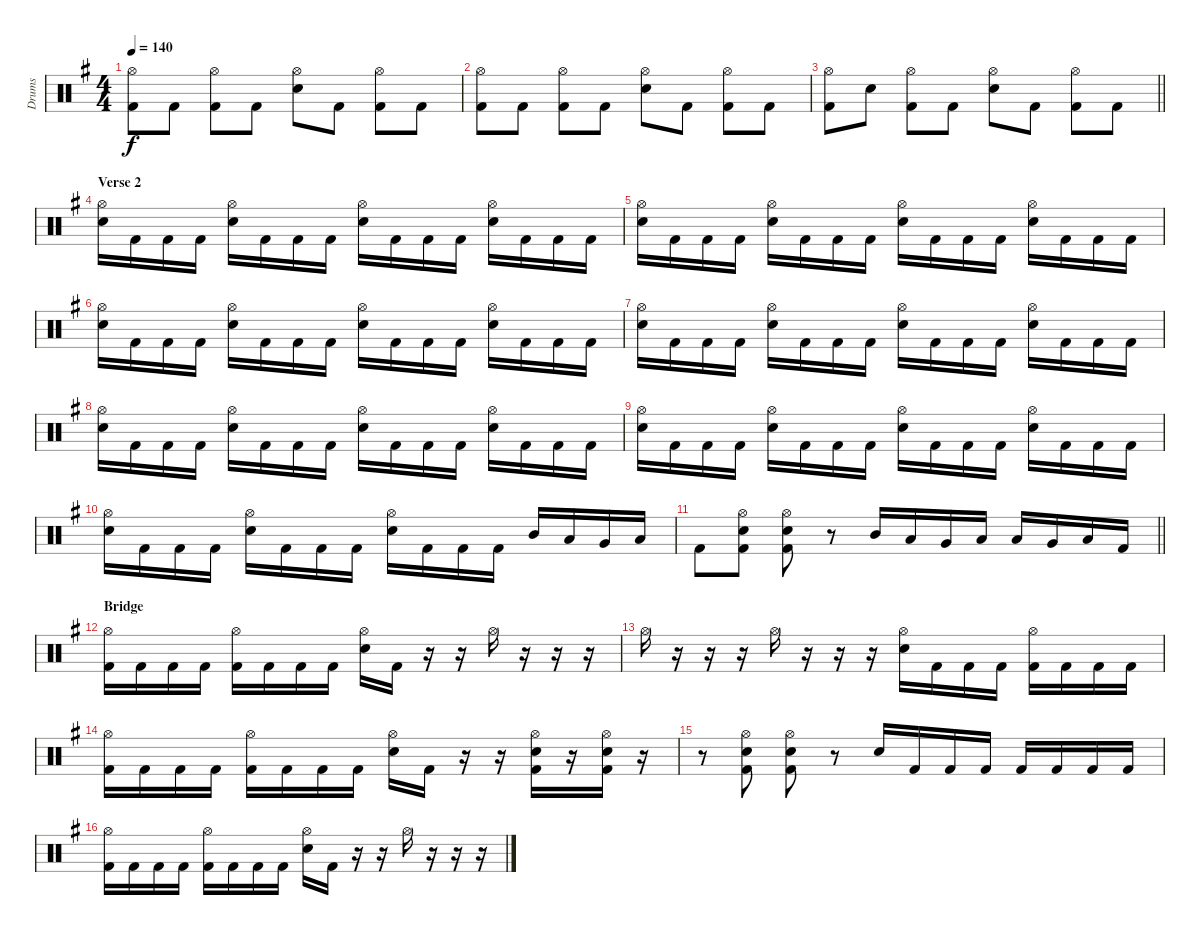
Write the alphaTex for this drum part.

\track ("Drums" "Drums") {instrument percussion}
\staff {score}
\articulation defaults
\ts (4 4)
\tempo 140
\clef neutral
\ks g
("Hi-Hat (open)" "Kick (hit) 2").8{dy f} "Kick (hit) 2".8 ("Hi-Hat (open)" "Kick (hit) 2").8 "Kick (hit) 2".8 ("Hi-Hat (open)" "Electric Snare (hit)").8 "Kick (hit) 2".8 ("Hi-Hat (open)" "Kick (hit) 2").8 "Kick (hit) 2".8 |
("Hi-Hat (open)" "Kick (hit) 2").8 "Kick (hit) 2".8 ("Hi-Hat (open)" "Kick (hit) 2").8 "Kick (hit) 2".8 ("Hi-Hat (open)" "Electric Snare (hit)").8 "Kick (hit) 2".8 ("Hi-Hat (open)" "Kick (hit) 2").8 "Kick (hit) 2".8 |
\barLineRight lightlight
("Hi-Hat (open)" "Kick (hit) 2").8 "Electric Snare (hit)".8 ("Hi-Hat (open)" "Kick (hit) 2").8 "Kick (hit) 2".8 ("Hi-Hat (open)" "Electric Snare (hit)").8 "Kick (hit) 2".8 ("Hi-Hat (open)" "Kick (hit) 2").8 "Kick (hit) 2".8 |
\section ("" "Verse 2")
("Hi-Hat (open)" "Electric Snare (hit)").16 "Kick (hit) 2".16 "Kick (hit) 2".16 "Kick (hit) 2".16 ("Hi-Hat (open)" "Electric Snare (hit)").16 "Kick (hit) 2".16 "Kick (hit) 2".16 "Kick (hit) 2".16 ("Hi-Hat (open)" "Electric Snare (hit)").16 "Kick (hit) 2".16 "Kick (hit) 2".16 "Kick (hit) 2".16 ("Hi-Hat (open)" "Electric Snare (hit)").16 "Kick (hit) 2".16 "Kick (hit) 2".16 "Kick (hit) 2".16 |
("Hi-Hat (open)" "Electric Snare (hit)").16 "Kick (hit) 2".16 "Kick (hit) 2".16 "Kick (hit) 2".16 ("Hi-Hat (open)" "Electric Snare (hit)").16 "Kick (hit) 2".16 "Kick (hit) 2".16 "Kick (hit) 2".16 ("Hi-Hat (open)" "Electric Snare (hit)").16 "Kick (hit) 2".16 "Kick (hit) 2".16 "Kick (hit) 2".16 ("Hi-Hat (open)" "Electric Snare (hit)").16 "Kick (hit) 2".16 "Kick (hit) 2".16 "Kick (hit) 2".16 |
("Hi-Hat (open)" "Electric Snare (hit)").16 "Kick (hit) 2".16 "Kick (hit) 2".16 "Kick (hit) 2".16 ("Hi-Hat (open)" "Electric Snare (hit)").16 "Kick (hit) 2".16 "Kick (hit) 2".16 "Kick (hit) 2".16 ("Hi-Hat (open)" "Electric Snare (hit)").16 "Kick (hit) 2".16 "Kick (hit) 2".16 "Kick (hit) 2".16 ("Hi-Hat (open)" "Electric Snare (hit)").16 "Kick (hit) 2".16 "Kick (hit) 2".16 "Kick (hit) 2".16 |
("Hi-Hat (open)" "Electric Snare (hit)").16 "Kick (hit) 2".16 "Kick (hit) 2".16 "Kick (hit) 2".16 ("Hi-Hat (open)" "Electric Snare (hit)").16 "Kick (hit) 2".16 "Kick (hit) 2".16 "Kick (hit) 2".16 ("Hi-Hat (open)" "Electric Snare (hit)").16 "Kick (hit) 2".16 "Kick (hit) 2".16 "Kick (hit) 2".16 ("Hi-Hat (open)" "Electric Snare (hit)").16 "Kick (hit) 2".16 "Kick (hit) 2".16 "Kick (hit) 2".16 |
("Hi-Hat (open)" "Electric Snare (hit)").16 "Kick (hit) 2".16 "Kick (hit) 2".16 "Kick (hit) 2".16 ("Hi-Hat (open)" "Electric Snare (hit)").16 "Kick (hit) 2".16 "Kick (hit) 2".16 "Kick (hit) 2".16 ("Hi-Hat (open)" "Electric Snare (hit)").16 "Kick (hit) 2".16 "Kick (hit) 2".16 "Kick (hit) 2".16 ("Hi-Hat (open)" "Electric Snare (hit)").16 "Kick (hit) 2".16 "Kick (hit) 2".16 "Kick (hit) 2".16 |
("Hi-Hat (open)" "Electric Snare (hit)").16 "Kick (hit) 2".16 "Kick (hit) 2".16 "Kick (hit) 2".16 ("Hi-Hat (open)" "Electric Snare (hit)").16 "Kick (hit) 2".16 "Kick (hit) 2".16 "Kick (hit) 2".16 ("Hi-Hat (open)" "Electric Snare (hit)").16 "Kick (hit) 2".16 "Kick (hit) 2".16 "Kick (hit) 2".16 ("Hi-Hat (open)" "Electric Snare (hit)").16 "Kick (hit) 2".16 "Kick (hit) 2".16 "Kick (hit) 2".16 |
("Hi-Hat (open)" "Electric Snare (hit)").16 "Kick (hit) 2".16 "Kick (hit) 2".16 "Kick (hit) 2".16 ("Hi-Hat (open)" "Electric Snare (hit)").16 "Kick (hit) 2".16 "Kick (hit) 2".16 "Kick (hit) 2".16 ("Hi-Hat (open)" "Electric Snare (hit)").16 "Kick (hit) 2".16 "Kick (hit) 2".16 "Kick (hit) 2".16 "Mid Tom (hit)".16 "Low Tom (hit)".16 "Very Low Tom (hit)".16 "Low Floor Tom (hit)".16 |
\barLineRight lightlight "Kick (hit) 2".8
("Hi-Hat (open)" "Electric Snare (hit)" "Kick (hit) 2").8 ("Hi-Hat (open)" "Electric Snare (hit)" "Kick (hit) 2").8 r.8 "Mid Tom (hit)".16 "Low Tom (hit)".16 "Very Low Tom (hit)".16 "Low Floor Tom (hit)".16 "Low Tom (hit)".16 "Very Low Tom (hit)".16 "Low Floor Tom (hit)".16 "Kick (hit) 2".16 |
\section ("" "Bridge")
("Hi-Hat (open)" "Kick (hit) 2").16 "Kick (hit) 2".16 "Kick (hit) 2".16 "Kick (hit) 2".16 ("Hi-Hat (open)" "Kick (hit) 2").16 "Kick (hit) 2".16 "Kick (hit) 2".16 "Kick (hit) 2".16 ("Hi-Hat (open)" "Electric Snare (hit)").16 "Kick (hit) 2".16 r.16 r.16 "Hi-Hat (open)".16 r.16 r.16 r.16 |
"Hi-Hat (open)".16 r.16 r.16 r.16 "Hi-Hat (open)".16 r.16 r.16 r.16 ("Hi-Hat (open)" "Electric Snare (hit)").16 "Kick (hit) 2".16 "Kick (hit) 2".16 "Kick (hit) 2".16 ("Hi-Hat (open)" "Kick (hit) 2").16 "Kick (hit) 2".16 "Kick (hit) 2".16 "Kick (hit) 2".16 |
("Hi-Hat (open)" "Kick (hit) 2").16 "Kick (hit) 2".16 "Kick (hit) 2".16 "Kick (hit) 2".16 ("Hi-Hat (open)" "Kick (hit) 2").16 "Kick (hit) 2".16 "Kick (hit) 2".16 "Kick (hit) 2".16 ("Hi-Hat (open)" "Electric Snare (hit)").16 "Kick (hit) 2".16 r.16 r.16 ("Hi-Hat (open)" "Electric Snare (hit)" "Kick (hit) 2").16 r.16 ("Hi-Hat (open)" "Electric Snare (hit)" "Kick (hit) 2").16 r.16 |
r.8 ("Hi-Hat (open)" "Kick (hit) 2" "Electric Snare (hit)").8 ("Hi-Hat (open)" "Kick (hit) 2" "Electric Snare (hit)").8 r.8 "Electric Snare (hit)".16 "Kick (hit) 2".16 "Kick (hit) 2".16 "Kick (hit) 2".16 "Kick (hit) 2".16 "Kick (hit) 2".16 "Kick (hit) 2".16 "Kick (hit) 2".16 |
("Hi-Hat (open)" "Kick (hit) 2").16 "Kick (hit) 2".16 "Kick (hit) 2".16 "Kick (hit) 2".16 ("Hi-Hat (open)" "Kick (hit) 2").16 "Kick (hit) 2".16 "Kick (hit) 2".16 "Kick (hit) 2".16 ("Hi-Hat (open)" "Electric Snare (hit)").16 "Kick (hit) 2".16 r.16 r.16 "Hi-Hat (open)".16 r.16 r.16 r.16
